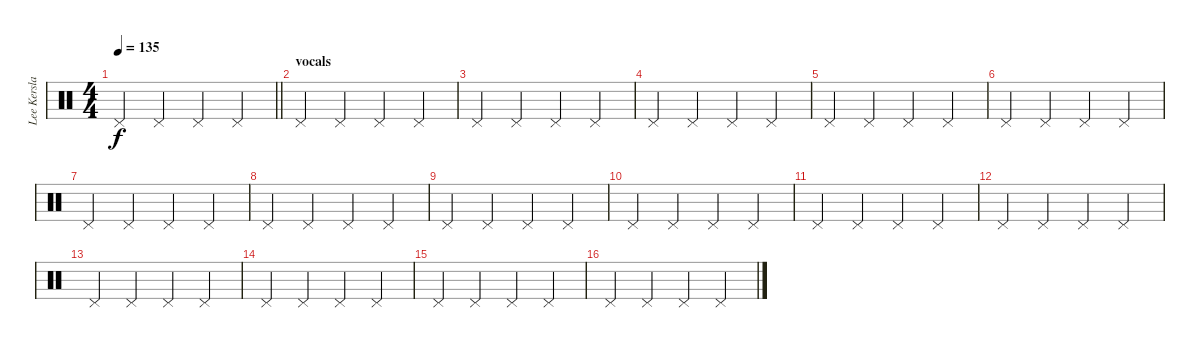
\track ("Lee Kerslake (drums)" "Lee Kersla") {instrument percussion}
\staff {score}
\articulation defaults
\ts (4 4)
\tempo 135
\clef neutral
\barLineRight lightlight
\ks c "Pedal Hi-Hat (hit)".4{dy f} "Pedal Hi-Hat (hit)".4 "Pedal Hi-Hat (hit)".4 "Pedal Hi-Hat (hit)".4
|
\section ("" "vocals")
"Pedal Hi-Hat (hit)".4 "Pedal Hi-Hat (hit)".4 "Pedal Hi-Hat (hit)".4 "Pedal Hi-Hat (hit)".4 |
"Pedal Hi-Hat (hit)".4 "Pedal Hi-Hat (hit)".4 "Pedal Hi-Hat (hit)".4 "Pedal Hi-Hat (hit)".4 |
"Pedal Hi-Hat (hit)".4 "Pedal Hi-Hat (hit)".4 "Pedal Hi-Hat (hit)".4 "Pedal Hi-Hat (hit)".4 |
"Pedal Hi-Hat (hit)".4 "Pedal Hi-Hat (hit)".4 "Pedal Hi-Hat (hit)".4 "Pedal Hi-Hat (hit)".4 |
"Pedal Hi-Hat (hit)".4 "Pedal Hi-Hat (hit)".4 "Pedal Hi-Hat (hit)".4 "Pedal Hi-Hat (hit)".4 |
"Pedal Hi-Hat (hit)".4 "Pedal Hi-Hat (hit)".4 "Pedal Hi-Hat (hit)".4 "Pedal Hi-Hat (hit)".4 |
"Pedal Hi-Hat (hit)".4 "Pedal Hi-Hat (hit)".4 "Pedal Hi-Hat (hit)".4 "Pedal Hi-Hat (hit)".4 |
"Pedal Hi-Hat (hit)".4 "Pedal Hi-Hat (hit)".4 "Pedal Hi-Hat (hit)".4 "Pedal Hi-Hat (hit)".4 |
"Pedal Hi-Hat (hit)".4 "Pedal Hi-Hat (hit)".4 "Pedal Hi-Hat (hit)".4 "Pedal Hi-Hat (hit)".4 |
"Pedal Hi-Hat (hit)".4 "Pedal Hi-Hat (hit)".4 "Pedal Hi-Hat (hit)".4 "Pedal Hi-Hat (hit)".4 |
"Pedal Hi-Hat (hit)".4 "Pedal Hi-Hat (hit)".4 "Pedal Hi-Hat (hit)".4 "Pedal Hi-Hat (hit)".4 |
"Pedal Hi-Hat (hit)".4 "Pedal Hi-Hat (hit)".4 "Pedal Hi-Hat (hit)".4 "Pedal Hi-Hat (hit)".4 |
"Pedal Hi-Hat (hit)".4 "Pedal Hi-Hat (hit)".4 "Pedal Hi-Hat (hit)".4 "Pedal Hi-Hat (hit)".4 |
"Pedal Hi-Hat (hit)".4 "Pedal Hi-Hat (hit)".4 "Pedal Hi-Hat (hit)".4 "Pedal Hi-Hat (hit)".4 |
"Pedal Hi-Hat (hit)".4 "Pedal Hi-Hat (hit)".4 "Pedal Hi-Hat (hit)".4 "Pedal Hi-Hat (hit)".4
